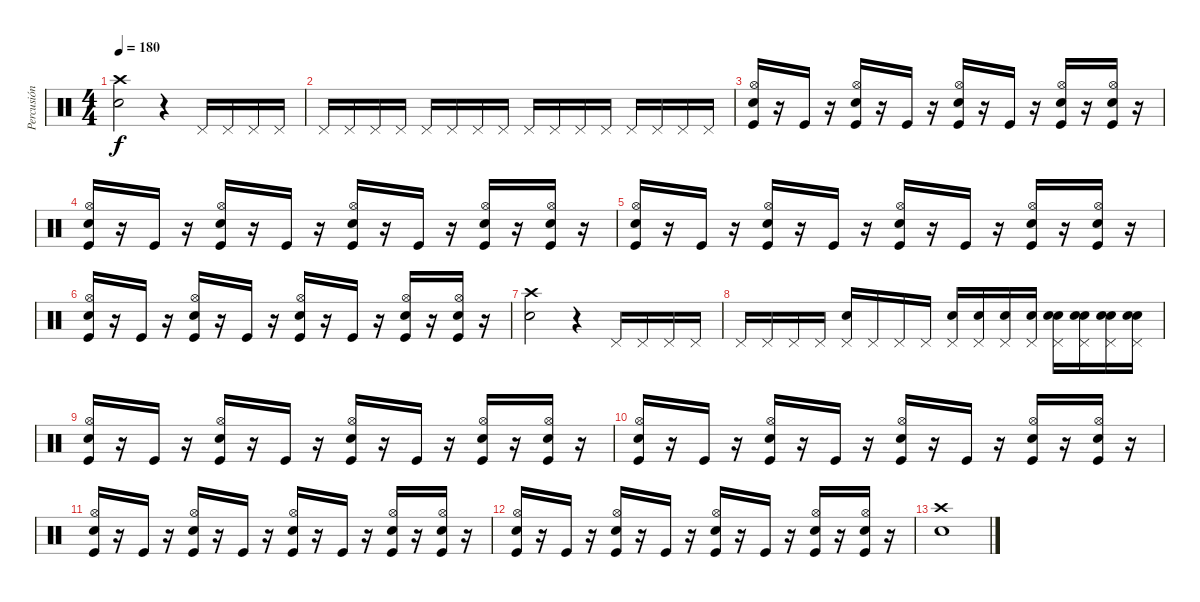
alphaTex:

\track ("Percusión" "Percusión") {instrument percussion}
\staff {score}
\articulation defaults
\ts (4 4)
\tempo 180
\clef neutral
\ks c
("Crash high (hit)" "Snare (hit) 2").2{dy f} r.4 "Pedal Hi-Hat (hit)".16 "Pedal Hi-Hat (hit)".16 "Pedal Hi-Hat (hit)".16 "Pedal Hi-Hat (hit)".16 |
"Pedal Hi-Hat (hit)".16 "Pedal Hi-Hat (hit)".16 "Pedal Hi-Hat (hit)".16 "Pedal Hi-Hat (hit)".16 "Pedal Hi-Hat (hit)".16 "Pedal Hi-Hat (hit)".16 "Pedal Hi-Hat (hit)".16 "Pedal Hi-Hat (hit)".16 "Pedal Hi-Hat (hit)".16 "Pedal Hi-Hat (hit)".16 "Pedal Hi-Hat (hit)".16 "Pedal Hi-Hat (hit)".16 "Pedal Hi-Hat (hit)".16 "Pedal Hi-Hat (hit)".16 "Pedal Hi-Hat (hit)".16 "Pedal Hi-Hat (hit)".16 |
("Snare (hit) 2" "Hi-Hat (open)" "Kick (hit)").16 r.16 "Kick (hit)".16 r.16 ("Snare (hit) 2" "Hi-Hat (open)" "Kick (hit)").16 r.16 "Kick (hit)".16 r.16 ("Snare (hit) 2" "Hi-Hat (open)" "Kick (hit)").16 r.16 "Kick (hit)".16 r.16 ("Snare (hit) 2" "Hi-Hat (open)" "Kick (hit)").16 r.16 ("Snare (hit) 2" "Hi-Hat (open)" "Kick (hit)").16 r.16 |
("Snare (hit) 2" "Hi-Hat (open)" "Kick (hit)").16 r.16 "Kick (hit)".16 r.16 ("Snare (hit) 2" "Hi-Hat (open)" "Kick (hit)").16 r.16 "Kick (hit)".16 r.16 ("Snare (hit) 2" "Hi-Hat (open)" "Kick (hit)").16 r.16 "Kick (hit)".16 r.16 ("Snare (hit) 2" "Hi-Hat (open)" "Kick (hit)").16 r.16 ("Snare (hit) 2" "Hi-Hat (open)" "Kick (hit)").16 r.16 |
("Snare (hit) 2" "Hi-Hat (open)" "Kick (hit)").16 r.16 "Kick (hit)".16 r.16 ("Snare (hit) 2" "Hi-Hat (open)" "Kick (hit)").16 r.16 "Kick (hit)".16 r.16 ("Snare (hit) 2" "Hi-Hat (open)" "Kick (hit)").16 r.16 "Kick (hit)".16 r.16 ("Snare (hit) 2" "Hi-Hat (open)" "Kick (hit)").16 r.16 ("Snare (hit) 2" "Hi-Hat (open)" "Kick (hit)").16 r.16 |
("Snare (hit) 2" "Hi-Hat (open)" "Kick (hit)").16 r.16 "Kick (hit)".16 r.16 ("Snare (hit) 2" "Hi-Hat (open)" "Kick (hit)").16 r.16 "Kick (hit)".16 r.16 ("Snare (hit) 2" "Hi-Hat (open)" "Kick (hit)").16 r.16 "Kick (hit)".16 r.16 ("Snare (hit) 2" "Hi-Hat (open)" "Kick (hit)").16 r.16 ("Snare (hit) 2" "Hi-Hat (open)" "Kick (hit)").16 r.16 |
("Crash high (hit)" "Snare (hit) 2").2 r.4 "Pedal Hi-Hat (hit)".16 "Pedal Hi-Hat (hit)".16 "Pedal Hi-Hat (hit)".16 "Pedal Hi-Hat (hit)".16 |
"Pedal Hi-Hat (hit)".16 "Pedal Hi-Hat (hit)".16 "Pedal Hi-Hat (hit)".16 "Pedal Hi-Hat (hit)".16 ("Electric Snare (hit)" "Pedal Hi-Hat (hit)").16 "Pedal Hi-Hat (hit)".16 "Pedal Hi-Hat (hit)".16 "Pedal Hi-Hat (hit)".16 ("Electric Snare (hit)" "Pedal Hi-Hat (hit)").16 ("Electric Snare (hit)" "Pedal Hi-Hat (hit)").16 ("Electric Snare (hit)" "Pedal Hi-Hat (hit)").16 ("Electric Snare (hit)" "Pedal Hi-Hat (hit)").16 ("Electric Snare (hit)" "Snare (hit) 2" "Pedal Hi-Hat (hit)").16 ("Electric Snare (hit)" "Snare (hit) 2" "Pedal Hi-Hat (hit)").16 ("Electric Snare (hit)" "Snare (hit) 2" "Pedal Hi-Hat (hit)").16 ("Electric Snare (hit)" "Snare (hit) 2" "Pedal Hi-Hat (hit)").16 |
("Snare (hit) 2" "Hi-Hat (open)" "Kick (hit)").16 r.16 "Kick (hit)".16 r.16 ("Snare (hit) 2" "Hi-Hat (open)" "Kick (hit)").16 r.16 "Kick (hit)".16 r.16 ("Snare (hit) 2" "Hi-Hat (open)" "Kick (hit)").16 r.16 "Kick (hit)".16 r.16 ("Snare (hit) 2" "Hi-Hat (open)" "Kick (hit)").16 r.16 ("Snare (hit) 2" "Hi-Hat (open)" "Kick (hit)").16 r.16 |
("Snare (hit) 2" "Hi-Hat (open)" "Kick (hit)").16 r.16 "Kick (hit)".16 r.16 ("Snare (hit) 2" "Hi-Hat (open)" "Kick (hit)").16 r.16 "Kick (hit)".16 r.16 ("Snare (hit) 2" "Hi-Hat (open)" "Kick (hit)").16 r.16 "Kick (hit)".16 r.16 ("Snare (hit) 2" "Hi-Hat (open)" "Kick (hit)").16 r.16 ("Snare (hit) 2" "Hi-Hat (open)" "Kick (hit)").16 r.16 |
("Snare (hit) 2" "Hi-Hat (open)" "Kick (hit)").16 r.16 "Kick (hit)".16 r.16 ("Snare (hit) 2" "Hi-Hat (open)" "Kick (hit)").16 r.16 "Kick (hit)".16 r.16 ("Snare (hit) 2" "Hi-Hat (open)" "Kick (hit)").16 r.16 "Kick (hit)".16 r.16 ("Snare (hit) 2" "Hi-Hat (open)" "Kick (hit)").16 r.16 ("Snare (hit) 2" "Hi-Hat (open)" "Kick (hit)").16 r.16 |
("Snare (hit) 2" "Hi-Hat (open)" "Kick (hit)").16 r.16 "Kick (hit)".16 r.16 ("Snare (hit) 2" "Hi-Hat (open)" "Kick (hit)").16 r.16 "Kick (hit)".16 r.16 ("Snare (hit) 2" "Hi-Hat (open)" "Kick (hit)").16 r.16 "Kick (hit)".16 r.16 ("Snare (hit) 2" "Hi-Hat (open)" "Kick (hit)").16 r.16 ("Snare (hit) 2" "Hi-Hat (open)" "Kick (hit)").16 r.16 |
("Crash high (hit)" "Snare (hit) 2").1
